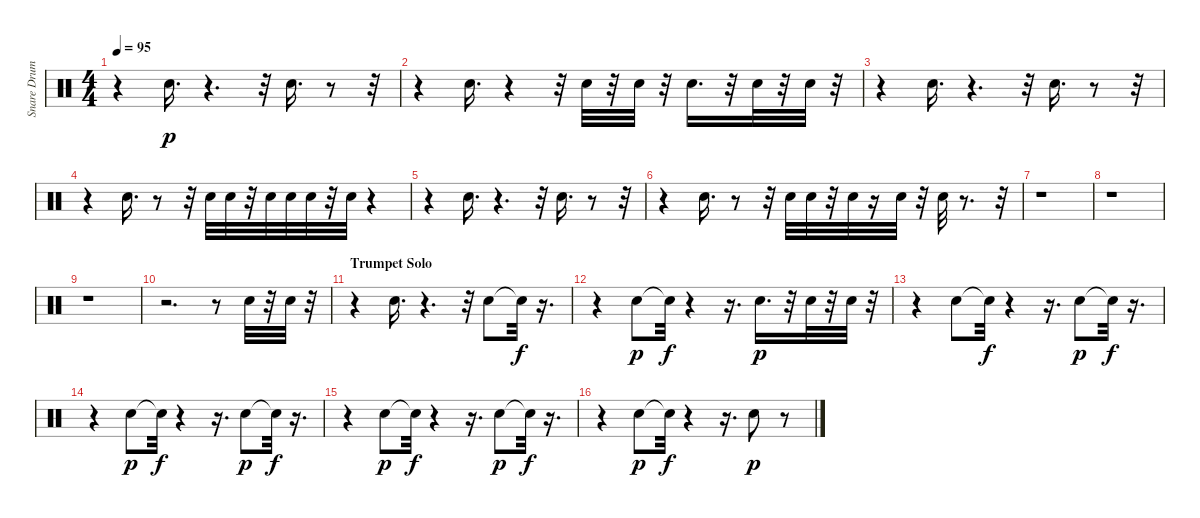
\track ("Snare Drum" "Snare Drum") {instrument percussion}
\staff {score}
\articulation defaults
\ts (4 4)
\tempo 95
\clef neutral
\ks c
r.4{dy p} "Snare (hit) 2".16{d} r.4{d} r.32 "Snare (hit) 2".16{d} r.8 r.32 |
r.4 "Snare (hit) 2".16{d} r.4 r.32 "Snare (hit) 2".32 r.32 "Snare (hit) 2".32 r.32 "Snare (hit) 2".16{d} r.32 "Snare (hit) 2".32 r.32 "Snare (hit) 2".32 r.32 |
r.4 "Snare (hit) 2".16{d} r.4{d} r.32 "Snare (hit) 2".16{d} r.8 r.32 |
r.4 "Snare (hit) 2".16{d} r.8 r.32 "Snare (hit) 2".32 "Snare (hit) 2".32 r.32 "Snare (hit) 2".32 "Snare (hit) 2".32 "Snare (hit) 2".32 r.32 "Snare (hit) 2".32 r.4 |
r.4 "Snare (hit) 2".16{d} r.4{d} r.32 "Snare (hit) 2".16{d} r.8 r.32 |
r.4 "Snare (hit) 2".16{d} r.8 r.32 "Snare (hit) 2".32 "Snare (hit) 2".32 r.32 "Snare (hit) 2".32 r.16 "Snare (hit) 2".32 r.32 "Snare (hit) 2".32 r.8{d} r.32 |
r.1 |
r.1 |
r.1 |
r.2{d} r.8 "Snare (hit) 2".32 r.32 "Snare (hit) 2".32 r.32 |
\section ("" "Trumpet Solo")
r.4 "Snare (hit) 2".16{d} r.4{d} r.32 "Snare (hit) 2".8 "Snare (hit)"{t}.32{dy f} r.16{d} |
r.4 "Snare (hit) 2".8{dy p} "Snare (hit)"{t}.32{dy f} r.4 r.16{d} "Snare (hit) 2".16{d dy p} r.32 "Snare (hit) 2".32 r.32 "Snare (hit) 2".32 r.32 |
r.4 "Snare (hit) 2".8 "Snare (hit)"{t}.32{dy f} r.4 r.16{d} "Snare (hit) 2".8{dy p} "Snare (hit)"{t}.32{dy f} r.16{d} |
r.4 "Snare (hit) 2".8{dy p} "Snare (hit)"{t}.32{dy f} r.4 r.16{d} "Snare (hit) 2".8{dy p} "Snare (hit)"{t}.32{dy f} r.16{d} |
r.4 "Snare (hit) 2".8{dy p} "Snare (hit)"{t}.32{dy f} r.4 r.16{d} "Snare (hit) 2".8{dy p} "Snare (hit)"{t}.32{dy f} r.16{d} |
r.4 "Snare (hit) 2".8{dy p} "Snare (hit)"{t}.32{dy f} r.4 r.16{d} "Snare (hit) 2".8{dy p} r.8
